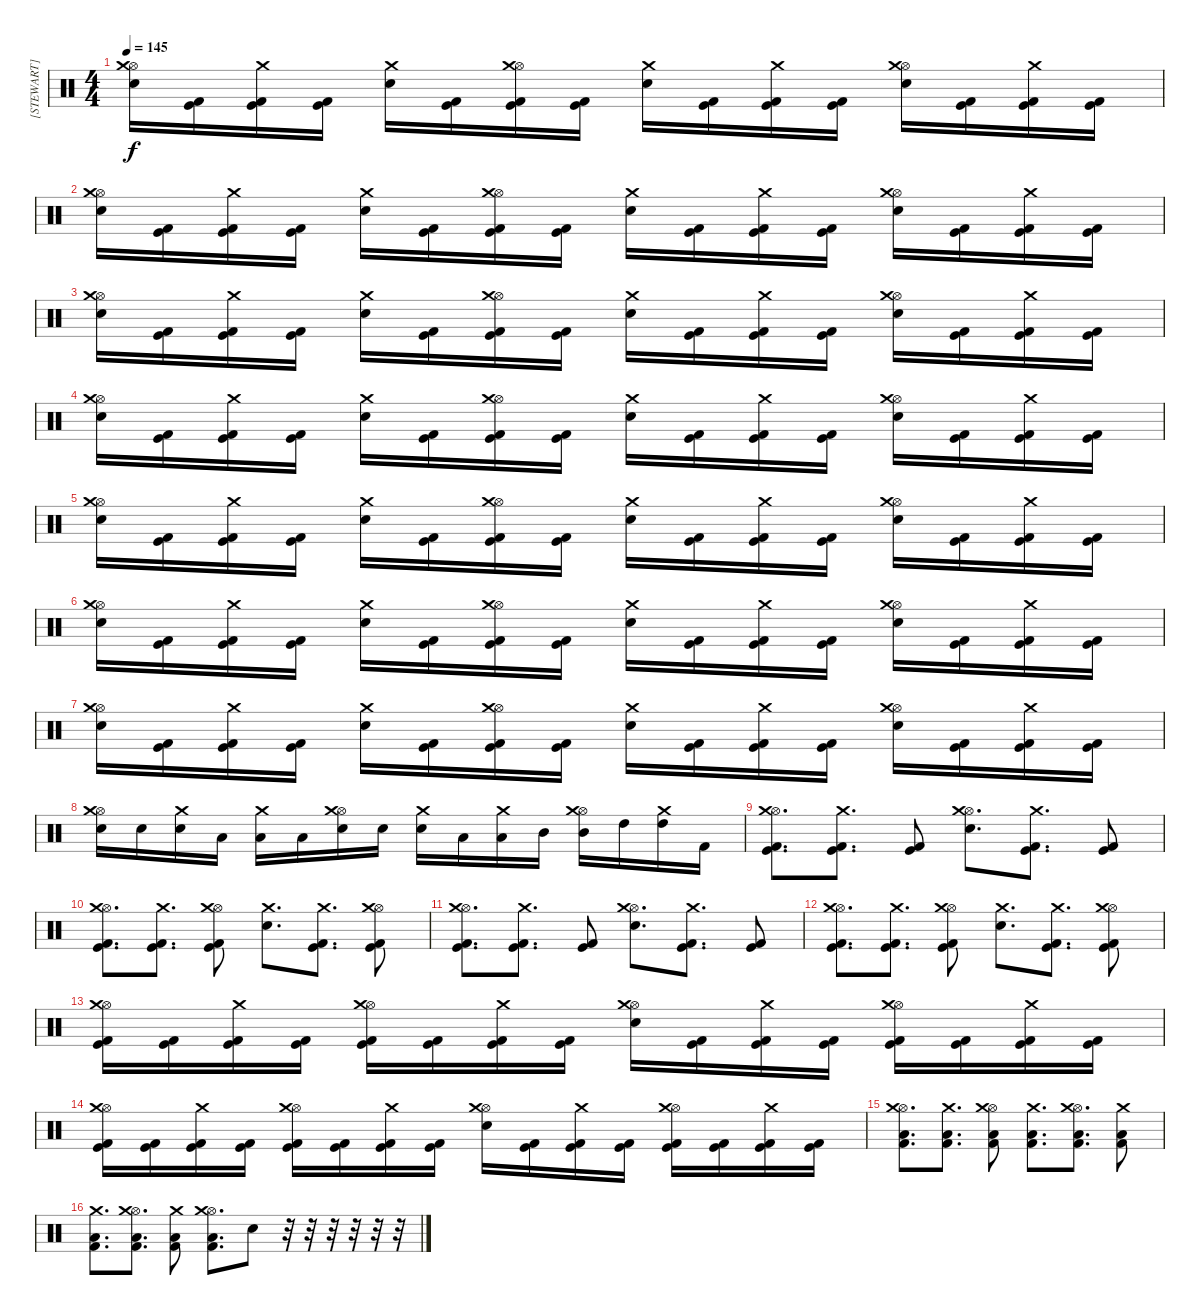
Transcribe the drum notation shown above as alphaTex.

\track ("[STEWART]" "[STEWART]") {instrument percussion}
\staff {score}
\articulation defaults
\ts (4 4)
\tempo 145
\clef neutral
\ks c
("Hi-Hat (open)" "Crash medium (hit)" "Electric Snare (hit)").16{dy f} ("Kick (hit) 2" "Kick (hit)").16 ("Crash medium (hit)" "Kick (hit) 2" "Kick (hit)").16 ("Kick (hit) 2" "Kick (hit)").16 ("Crash medium (hit)" "Electric Snare (hit)").16 ("Kick (hit) 2" "Kick (hit)").16 ("Hi-Hat (open)" "Crash medium (hit)" "Kick (hit) 2" "Kick (hit)").16 ("Kick (hit) 2" "Kick (hit)").16 ("Crash medium (hit)" "Electric Snare (hit)").16 ("Kick (hit) 2" "Kick (hit)").16 ("Crash medium (hit)" "Kick (hit) 2" "Kick (hit)").16 ("Kick (hit) 2" "Kick (hit)").16 ("Hi-Hat (open)" "Crash medium (hit)" "Electric Snare (hit)").16 ("Kick (hit) 2" "Kick (hit)").16 ("Crash medium (hit)" "Kick (hit) 2" "Kick (hit)").16 ("Kick (hit) 2" "Kick (hit)").16 |
("Hi-Hat (open)" "Crash medium (hit)" "Electric Snare (hit)").16 ("Kick (hit) 2" "Kick (hit)").16 ("Crash medium (hit)" "Kick (hit) 2" "Kick (hit)").16 ("Kick (hit) 2" "Kick (hit)").16 ("Crash medium (hit)" "Electric Snare (hit)").16 ("Kick (hit) 2" "Kick (hit)").16 ("Hi-Hat (open)" "Crash medium (hit)" "Kick (hit) 2" "Kick (hit)").16 ("Kick (hit) 2" "Kick (hit)").16 ("Crash medium (hit)" "Electric Snare (hit)").16 ("Kick (hit) 2" "Kick (hit)").16 ("Crash medium (hit)" "Kick (hit) 2" "Kick (hit)").16 ("Kick (hit) 2" "Kick (hit)").16 ("Hi-Hat (open)" "Crash medium (hit)" "Electric Snare (hit)").16 ("Kick (hit) 2" "Kick (hit)").16 ("Crash medium (hit)" "Kick (hit) 2" "Kick (hit)").16 ("Kick (hit) 2" "Kick (hit)").16 |
("Hi-Hat (open)" "Crash medium (hit)" "Electric Snare (hit)").16 ("Kick (hit) 2" "Kick (hit)").16 ("Crash medium (hit)" "Kick (hit) 2" "Kick (hit)").16 ("Kick (hit) 2" "Kick (hit)").16 ("Crash medium (hit)" "Electric Snare (hit)").16 ("Kick (hit) 2" "Kick (hit)").16 ("Hi-Hat (open)" "Crash medium (hit)" "Kick (hit) 2" "Kick (hit)").16 ("Kick (hit) 2" "Kick (hit)").16 ("Crash medium (hit)" "Electric Snare (hit)").16 ("Kick (hit) 2" "Kick (hit)").16 ("Crash medium (hit)" "Kick (hit) 2" "Kick (hit)").16 ("Kick (hit) 2" "Kick (hit)").16 ("Hi-Hat (open)" "Crash medium (hit)" "Electric Snare (hit)").16 ("Kick (hit) 2" "Kick (hit)").16 ("Crash medium (hit)" "Kick (hit) 2" "Kick (hit)").16 ("Kick (hit) 2" "Kick (hit)").16 |
("Hi-Hat (open)" "Crash medium (hit)" "Electric Snare (hit)").16 ("Kick (hit) 2" "Kick (hit)").16 ("Crash medium (hit)" "Kick (hit) 2" "Kick (hit)").16 ("Kick (hit) 2" "Kick (hit)").16 ("Crash medium (hit)" "Electric Snare (hit)").16 ("Kick (hit) 2" "Kick (hit)").16 ("Hi-Hat (open)" "Crash medium (hit)" "Kick (hit) 2" "Kick (hit)").16 ("Kick (hit) 2" "Kick (hit)").16 ("Crash medium (hit)" "Electric Snare (hit)").16 ("Kick (hit) 2" "Kick (hit)").16 ("Crash medium (hit)" "Kick (hit) 2" "Kick (hit)").16 ("Kick (hit) 2" "Kick (hit)").16 ("Hi-Hat (open)" "Crash medium (hit)" "Electric Snare (hit)").16 ("Kick (hit) 2" "Kick (hit)").16 ("Crash medium (hit)" "Kick (hit) 2" "Kick (hit)").16 ("Kick (hit) 2" "Kick (hit)").16 |
("Hi-Hat (open)" "Crash medium (hit)" "Electric Snare (hit)").16 ("Kick (hit) 2" "Kick (hit)").16 ("Crash medium (hit)" "Kick (hit) 2" "Kick (hit)").16 ("Kick (hit) 2" "Kick (hit)").16 ("Crash medium (hit)" "Electric Snare (hit)").16 ("Kick (hit) 2" "Kick (hit)").16 ("Hi-Hat (open)" "Crash medium (hit)" "Kick (hit) 2" "Kick (hit)").16 ("Kick (hit) 2" "Kick (hit)").16 ("Crash medium (hit)" "Electric Snare (hit)").16 ("Kick (hit) 2" "Kick (hit)").16 ("Crash medium (hit)" "Kick (hit) 2" "Kick (hit)").16 ("Kick (hit) 2" "Kick (hit)").16 ("Hi-Hat (open)" "Crash medium (hit)" "Electric Snare (hit)").16 ("Kick (hit) 2" "Kick (hit)").16 ("Crash medium (hit)" "Kick (hit) 2" "Kick (hit)").16 ("Kick (hit) 2" "Kick (hit)").16 |
("Hi-Hat (open)" "Crash medium (hit)" "Electric Snare (hit)").16 ("Kick (hit) 2" "Kick (hit)").16 ("Crash medium (hit)" "Kick (hit) 2" "Kick (hit)").16 ("Kick (hit) 2" "Kick (hit)").16 ("Crash medium (hit)" "Electric Snare (hit)").16 ("Kick (hit) 2" "Kick (hit)").16 ("Hi-Hat (open)" "Crash medium (hit)" "Kick (hit) 2" "Kick (hit)").16 ("Kick (hit) 2" "Kick (hit)").16 ("Crash medium (hit)" "Electric Snare (hit)").16 ("Kick (hit) 2" "Kick (hit)").16 ("Crash medium (hit)" "Kick (hit) 2" "Kick (hit)").16 ("Kick (hit) 2" "Kick (hit)").16 ("Hi-Hat (open)" "Crash medium (hit)" "Electric Snare (hit)").16 ("Kick (hit) 2" "Kick (hit)").16 ("Crash medium (hit)" "Kick (hit) 2" "Kick (hit)").16 ("Kick (hit) 2" "Kick (hit)").16 |
("Hi-Hat (open)" "Crash medium (hit)" "Electric Snare (hit)").16 ("Kick (hit) 2" "Kick (hit)").16 ("Crash medium (hit)" "Kick (hit) 2" "Kick (hit)").16 ("Kick (hit) 2" "Kick (hit)").16 ("Crash medium (hit)" "Electric Snare (hit)").16 ("Kick (hit) 2" "Kick (hit)").16 ("Hi-Hat (open)" "Crash medium (hit)" "Kick (hit) 2" "Kick (hit)").16 ("Kick (hit) 2" "Kick (hit)").16 ("Crash medium (hit)" "Electric Snare (hit)").16 ("Kick (hit) 2" "Kick (hit)").16 ("Crash medium (hit)" "Kick (hit) 2" "Kick (hit)").16 ("Kick (hit) 2" "Kick (hit)").16 ("Hi-Hat (open)" "Crash medium (hit)" "Electric Snare (hit)").16 ("Kick (hit) 2" "Kick (hit)").16 ("Crash medium (hit)" "Kick (hit) 2" "Kick (hit)").16 ("Kick (hit) 2" "Kick (hit)").16 |
("Hi-Hat (open)" "Crash medium (hit)" "Electric Snare (hit)").16 "Electric Snare (hit)".16 ("Crash medium (hit)" "Electric Snare (hit)").16 "Low Tom (hit)".16 ("Crash medium (hit)" "Low Tom (hit)").16 "Low Tom (hit)".16 ("Hi-Hat (open)" "Crash medium (hit)" "Electric Snare (hit)").16 "Electric Snare (hit)".16 ("Crash medium (hit)" "Electric Snare (hit)").16 "Low Tom (hit)".16 ("Crash medium (hit)" "Low Tom (hit)").16 "Mid Tom (hit)".16 ("Hi-Hat (open)" "Crash medium (hit)" "Mid Tom (hit)").16 "High Tom (hit)".16 ("Crash medium (hit)" "High Tom (hit)").16 "Kick (hit) 2".16 |
("Hi-Hat (open)" "Crash medium (hit)" "Kick (hit) 2" "Kick (hit)").8{d} ("Crash medium (hit)" "Kick (hit) 2" "Kick (hit)").8{d} ("Kick (hit) 2" "Kick (hit)").8 ("Hi-Hat (open)" "Crash medium (hit)" "Electric Snare (hit)").8{d} ("Crash medium (hit)" "Kick (hit) 2" "Kick (hit)").8{d} ("Kick (hit) 2" "Kick (hit)").8 |
("Hi-Hat (open)" "Crash medium (hit)" "Kick (hit) 2" "Kick (hit)").8{d} ("Crash medium (hit)" "Kick (hit) 2" "Kick (hit)").8{d} ("Hi-Hat (open)" "Crash medium (hit)" "Kick (hit) 2" "Kick (hit)").8 ("Crash medium (hit)" "Electric Snare (hit)").8{d} ("Crash medium (hit)" "Kick (hit) 2" "Kick (hit)").8{d} ("Hi-Hat (open)" "Crash medium (hit)" "Kick (hit) 2" "Kick (hit)").8 |
("Hi-Hat (open)" "Crash medium (hit)" "Kick (hit) 2" "Kick (hit)").8{d} ("Crash medium (hit)" "Kick (hit) 2" "Kick (hit)").8{d} ("Kick (hit) 2" "Kick (hit)").8 ("Hi-Hat (open)" "Crash medium (hit)" "Electric Snare (hit)").8{d} ("Crash medium (hit)" "Kick (hit) 2" "Kick (hit)").8{d} ("Kick (hit) 2" "Kick (hit)").8 |
("Hi-Hat (open)" "Crash medium (hit)" "Kick (hit) 2" "Kick (hit)").8{d} ("Crash medium (hit)" "Kick (hit) 2" "Kick (hit)").8{d} ("Hi-Hat (open)" "Crash medium (hit)" "Kick (hit) 2" "Kick (hit)").8 ("Crash medium (hit)" "Electric Snare (hit)").8{d} ("Crash medium (hit)" "Kick (hit) 2" "Kick (hit)").8{d} ("Hi-Hat (open)" "Crash medium (hit)" "Kick (hit) 2" "Kick (hit)").8 |
("Hi-Hat (open)" "Crash medium (hit)" "Kick (hit) 2" "Kick (hit)").16 ("Kick (hit) 2" "Kick (hit)").16 ("Crash medium (hit)" "Kick (hit) 2" "Kick (hit)").16 ("Kick (hit) 2" "Kick (hit)").16 ("Hi-Hat (open)" "Crash medium (hit)" "Kick (hit) 2" "Kick (hit)").16 ("Kick (hit) 2" "Kick (hit)").16 ("Crash medium (hit)" "Kick (hit) 2" "Kick (hit)").16 ("Kick (hit) 2" "Kick (hit)").16 ("Hi-Hat (open)" "Crash medium (hit)" "Electric Snare (hit)").16 ("Kick (hit) 2" "Kick (hit)").16 ("Crash medium (hit)" "Kick (hit) 2" "Kick (hit)").16 ("Kick (hit) 2" "Kick (hit)").16 ("Hi-Hat (open)" "Crash medium (hit)" "Kick (hit) 2" "Kick (hit)").16 ("Kick (hit) 2" "Kick (hit)").16 ("Crash medium (hit)" "Kick (hit) 2" "Kick (hit)").16 ("Kick (hit) 2" "Kick (hit)").16 |
("Hi-Hat (open)" "Crash medium (hit)" "Kick (hit) 2" "Kick (hit)").16 ("Kick (hit) 2" "Kick (hit)").16 ("Crash medium (hit)" "Kick (hit) 2" "Kick (hit)").16 ("Kick (hit) 2" "Kick (hit)").16 ("Hi-Hat (open)" "Crash medium (hit)" "Kick (hit) 2" "Kick (hit)").16 ("Kick (hit) 2" "Kick (hit)").16 ("Crash medium (hit)" "Kick (hit) 2" "Kick (hit)").16 ("Kick (hit) 2" "Kick (hit)").16 ("Hi-Hat (open)" "Crash medium (hit)" "Electric Snare (hit)").16 ("Kick (hit) 2" "Kick (hit)").16 ("Crash medium (hit)" "Kick (hit) 2" "Kick (hit)").16 ("Kick (hit) 2" "Kick (hit)").16 ("Hi-Hat (open)" "Crash medium (hit)" "Kick (hit) 2" "Kick (hit)").16 ("Kick (hit) 2" "Kick (hit)").16 ("Crash medium (hit)" "Kick (hit) 2" "Kick (hit)").16 ("Kick (hit) 2" "Kick (hit)").16 |
("Hi-Hat (open)" "Crash medium (hit)" "Low Tom (hit)" "Kick (hit) 2").8{d} ("Crash medium (hit)" "Low Tom (hit)" "Kick (hit) 2").8{d} ("Hi-Hat (open)" "Crash medium (hit)" "Low Tom (hit)" "Kick (hit) 2").8 ("Crash medium (hit)" "Low Tom (hit)" "Kick (hit) 2").8{d} ("Hi-Hat (open)" "Crash medium (hit)" "Low Tom (hit)" "Kick (hit) 2").8{d} ("Crash medium (hit)" "Low Tom (hit)" "Kick (hit) 2").8 |
("Crash medium (hit)" "Low Tom (hit)" "Kick (hit) 2").8{d} ("Hi-Hat (open)" "Crash medium (hit)" "Low Tom (hit)" "Kick (hit) 2").8{d} ("Crash medium (hit)" "Low Tom (hit)" "Kick (hit) 2").8 ("Hi-Hat (open)" "Crash medium (hit)" "Low Tom (hit)" "Kick (hit) 2").8{d} "Electric Snare (hit)".8 r.32 r.32 r.32 r.32 r.32 r.32
